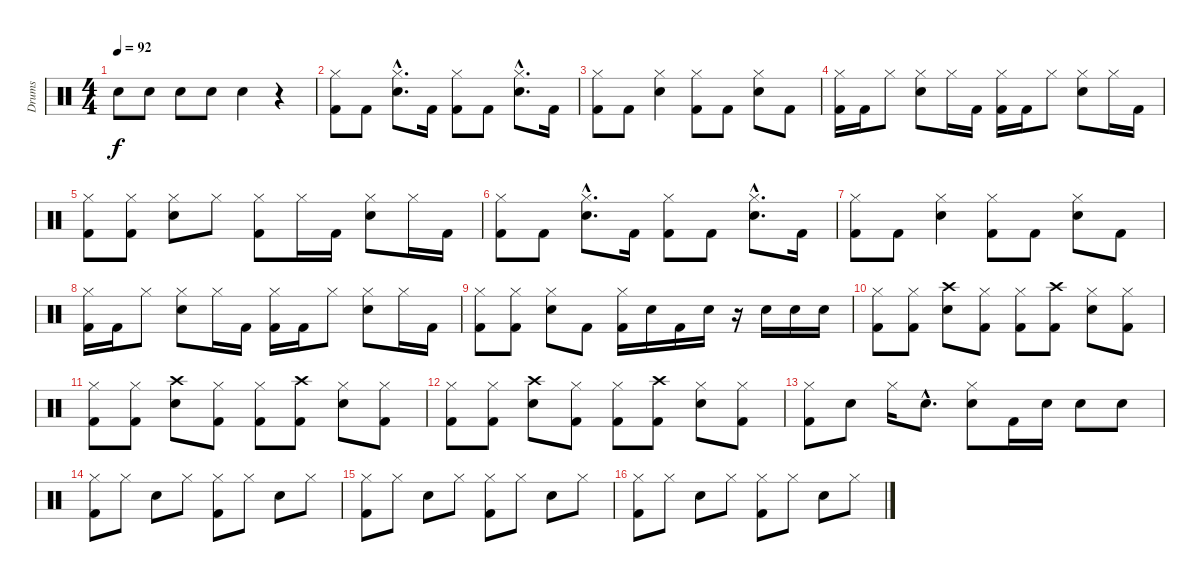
\track ("Drums" "Drums") {instrument percussion}
\staff {score}
\articulation defaults
\ts (4 4)
\tempo 92
\clef neutral
\ks c "Electric Snare (hit)".8{dy f} "Electric Snare (hit)".8 "Electric Snare (hit)".8 "Electric Snare (hit)".8 "Electric Snare (hit)".4
r.4 |
("Hi-Hat (closed)" "Kick (hit) 2").8 "Kick (hit) 2".8 ("Hi-Hat (closed)"{hac} "Electric Snare (hit)"{hac}).8{d} "Kick (hit) 2".16 ("Hi-Hat (closed)" "Kick (hit) 2").8 "Kick (hit) 2".8 ("Hi-Hat (closed)"{hac} "Electric Snare (hit)"{hac}).8{d} "Kick (hit) 2".16 |
("Hi-Hat (closed)" "Kick (hit) 2").8 "Kick (hit) 2".8 ("Hi-Hat (closed)" "Electric Snare (hit)").4 ("Hi-Hat (closed)" "Kick (hit) 2").8 "Kick (hit) 2".8 ("Hi-Hat (closed)" "Electric Snare (hit)").8 "Kick (hit) 2".8 |
("Hi-Hat (closed)" "Kick (hit) 2").16 "Kick (hit) 2".16 "Hi-Hat (closed)".8 ("Hi-Hat (closed)" "Electric Snare (hit)").8 "Hi-Hat (closed)".16 "Kick (hit) 2".16 ("Hi-Hat (closed)" "Kick (hit) 2").16 "Kick (hit) 2".16 "Hi-Hat (closed)".8 ("Hi-Hat (closed)" "Electric Snare (hit)").8 "Hi-Hat (closed)".16 "Kick (hit) 2".16 |
("Hi-Hat (closed)" "Kick (hit) 2").8 ("Hi-Hat (closed)" "Kick (hit) 2").8 ("Hi-Hat (closed)" "Electric Snare (hit)").8 "Hi-Hat (closed)".8 ("Hi-Hat (closed)" "Kick (hit) 2").8 "Hi-Hat (closed)".16 "Kick (hit) 2".16 ("Hi-Hat (closed)" "Electric Snare (hit)").8 "Hi-Hat (closed)".16 "Kick (hit) 2".16 |
("Hi-Hat (closed)" "Kick (hit) 2").8 "Kick (hit) 2".8 ("Hi-Hat (closed)"{hac} "Electric Snare (hit)"{hac}).8{d} "Kick (hit) 2".16 ("Hi-Hat (closed)" "Kick (hit) 2").8 "Kick (hit) 2".8 ("Hi-Hat (closed)"{hac} "Electric Snare (hit)"{hac}).8{d} "Kick (hit) 2".16 |
("Hi-Hat (closed)" "Kick (hit) 2").8 "Kick (hit) 2".8 ("Hi-Hat (closed)" "Electric Snare (hit)").4 ("Hi-Hat (closed)" "Kick (hit) 2").8 "Kick (hit) 2".8 ("Hi-Hat (closed)" "Electric Snare (hit)").8 "Kick (hit) 2".8 |
("Hi-Hat (closed)" "Kick (hit) 2").16 "Kick (hit) 2".16 "Hi-Hat (closed)".8 ("Hi-Hat (closed)" "Electric Snare (hit)").8 "Hi-Hat (closed)".16 "Kick (hit) 2".16 ("Hi-Hat (closed)" "Kick (hit) 2").16 "Kick (hit) 2".16 "Hi-Hat (closed)".8 ("Hi-Hat (closed)" "Electric Snare (hit)").8 "Hi-Hat (closed)".16 "Kick (hit) 2".16 |
("Hi-Hat (closed)" "Kick (hit) 2").8 ("Hi-Hat (closed)" "Kick (hit) 2").8 ("Hi-Hat (closed)" "Electric Snare (hit)").8 "Kick (hit) 2".8 ("Hi-Hat (closed)" "Kick (hit) 2").16 "Electric Snare (hit)".16 "Kick (hit) 2".16 "Electric Snare (hit)".16 r.16 "Electric Snare (hit)".16 "Electric Snare (hit)".16 "Electric Snare (hit)".16 |
("Hi-Hat (closed)" "Kick (hit) 2").8 ("Hi-Hat (closed)" "Kick (hit) 2").8 ("Crash high (hit)" "Electric Snare (hit)").8 ("Hi-Hat (closed)" "Kick (hit) 2").8 ("Hi-Hat (closed)" "Kick (hit) 2").8 ("Crash high (hit)" "Kick (hit) 2").8 ("Hi-Hat (closed)" "Electric Snare (hit)").8 ("Hi-Hat (closed)" "Kick (hit) 2").8 |
("Hi-Hat (closed)" "Kick (hit) 2").8 ("Hi-Hat (closed)" "Kick (hit) 2").8 ("Crash high (hit)" "Electric Snare (hit)").8 ("Hi-Hat (closed)" "Kick (hit) 2").8 ("Hi-Hat (closed)" "Kick (hit) 2").8 ("Crash high (hit)" "Kick (hit) 2").8 ("Hi-Hat (closed)" "Electric Snare (hit)").8 ("Hi-Hat (closed)" "Kick (hit) 2").8 |
("Hi-Hat (closed)" "Kick (hit) 2").8 ("Hi-Hat (closed)" "Kick (hit) 2").8 ("Crash high (hit)" "Electric Snare (hit)").8 ("Hi-Hat (closed)" "Kick (hit) 2").8 ("Hi-Hat (closed)" "Kick (hit) 2").8 ("Crash high (hit)" "Kick (hit) 2").8 ("Hi-Hat (closed)" "Electric Snare (hit)").8 ("Hi-Hat (closed)" "Kick (hit) 2").8 |
("Hi-Hat (closed)" "Kick (hit) 2").8 "Electric Snare (hit)".8 "Hi-Hat (closed)".16 "Electric Snare (hit)"{hac}.8{d} ("Hi-Hat (closed)" "Electric Snare (hit)").8 "Kick (hit) 2".16 "Electric Snare (hit)".16 "Electric Snare (hit)".8 "Electric Snare (hit)".8 |
("Hi-Hat (closed)" "Kick (hit) 2").8 "Hi-Hat (closed)".8 "Electric Snare (hit)".8 "Hi-Hat (closed)".8 ("Hi-Hat (closed)" "Kick (hit) 2").8 "Hi-Hat (closed)".8 "Electric Snare (hit)".8 "Hi-Hat (closed)".8 |
("Hi-Hat (closed)" "Kick (hit) 2").8 "Hi-Hat (closed)".8 "Electric Snare (hit)".8 "Hi-Hat (closed)".8 ("Hi-Hat (closed)" "Kick (hit) 2").8 "Hi-Hat (closed)".8 "Electric Snare (hit)".8 "Hi-Hat (closed)".8 |
("Hi-Hat (closed)" "Kick (hit) 2").8 "Hi-Hat (closed)".8 "Electric Snare (hit)".8 "Hi-Hat (closed)".8 ("Hi-Hat (closed)" "Kick (hit) 2").8 "Hi-Hat (closed)".8 "Electric Snare (hit)".8 "Hi-Hat (closed)".8
